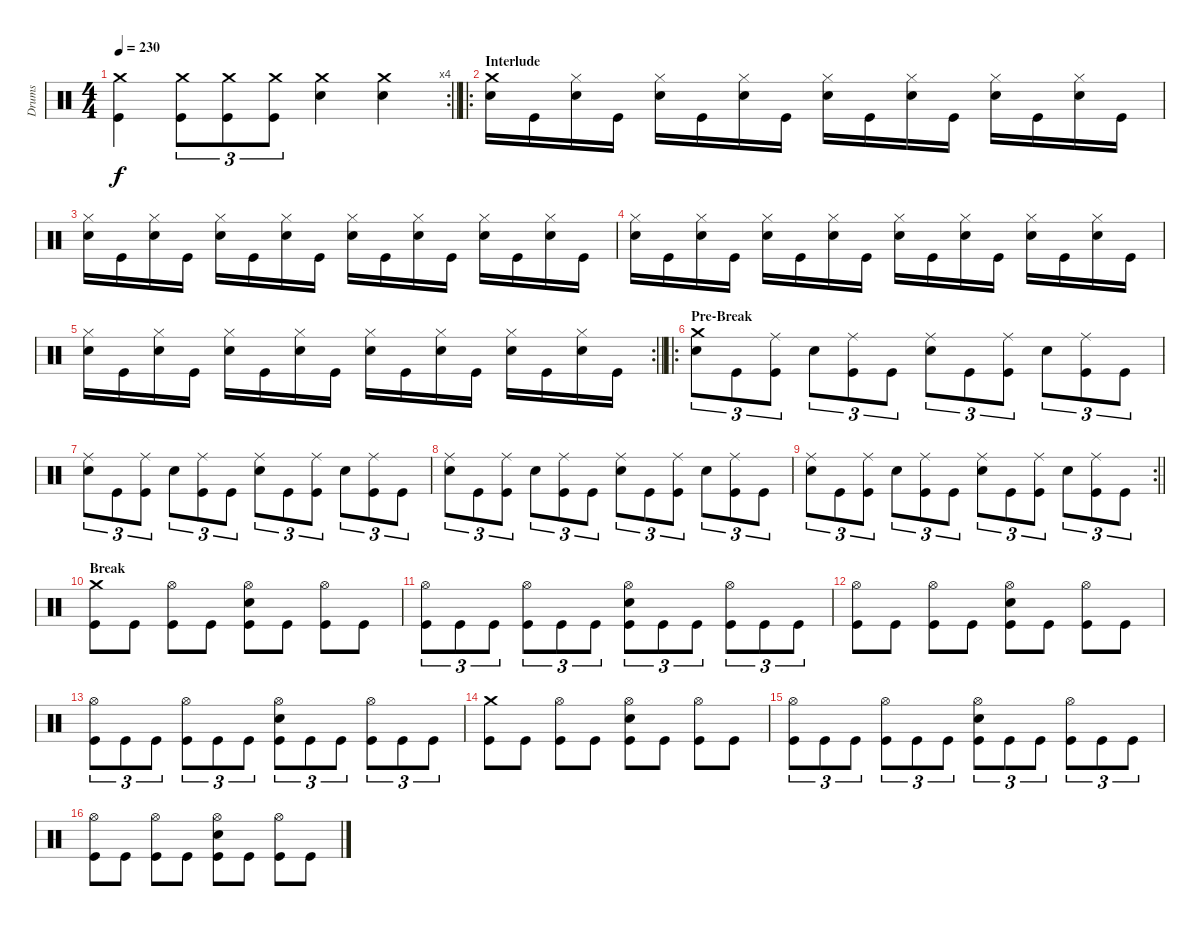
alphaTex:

\track ("Drums" "Drums") {instrument percussion}
\staff {score}
\articulation defaults
\rc 4
\ts (4 4)
\tempo 230
\clef neutral
\barLineRight lightlight
\ks c
("Crash medium (hit)" "Kick (hit)").4{dy f} ("Crash medium (hit)" "Kick (hit)").8{tu (3 2)} ("Crash medium (hit)" "Kick (hit)").8{tu (3 2)} ("Crash medium (hit)" "Kick (hit)").8{tu (3 2)} ("Crash medium (hit)" "Electric Snare (hit)").4 ("Crash medium (hit)" "Electric Snare (hit)").4 |
\ro
\section ("" "Interlude")
("Crash medium (hit)" "Electric Snare (hit)").16 "Kick (hit)".16 ("Hi-Hat (closed)" "Electric Snare (hit)").16 "Kick (hit)".16 ("Hi-Hat (closed)" "Electric Snare (hit)").16 "Kick (hit)".16 ("Hi-Hat (closed)" "Electric Snare (hit)").16 "Kick (hit)".16 ("Hi-Hat (closed)" "Electric Snare (hit)").16 "Kick (hit)".16 ("Hi-Hat (closed)" "Electric Snare (hit)").16 "Kick (hit)".16 ("Hi-Hat (closed)" "Electric Snare (hit)").16 "Kick (hit)".16 ("Hi-Hat (closed)" "Electric Snare (hit)").16 "Kick (hit)".16 |
("Hi-Hat (closed)" "Electric Snare (hit)").16 "Kick (hit)".16 ("Hi-Hat (closed)" "Electric Snare (hit)").16 "Kick (hit)".16 ("Hi-Hat (closed)" "Electric Snare (hit)").16 "Kick (hit)".16 ("Hi-Hat (closed)" "Electric Snare (hit)").16 "Kick (hit)".16 ("Hi-Hat (closed)" "Electric Snare (hit)").16 "Kick (hit)".16 ("Hi-Hat (closed)" "Electric Snare (hit)").16 "Kick (hit)".16 ("Hi-Hat (closed)" "Electric Snare (hit)").16 "Kick (hit)".16 ("Hi-Hat (closed)" "Electric Snare (hit)").16 "Kick (hit)".16 |
("Hi-Hat (closed)" "Electric Snare (hit)").16 "Kick (hit)".16 ("Hi-Hat (closed)" "Electric Snare (hit)").16 "Kick (hit)".16 ("Hi-Hat (closed)" "Electric Snare (hit)").16 "Kick (hit)".16 ("Hi-Hat (closed)" "Electric Snare (hit)").16 "Kick (hit)".16 ("Hi-Hat (closed)" "Electric Snare (hit)").16 "Kick (hit)".16 ("Hi-Hat (closed)" "Electric Snare (hit)").16 "Kick (hit)".16 ("Hi-Hat (closed)" "Electric Snare (hit)").16 "Kick (hit)".16 ("Hi-Hat (closed)" "Electric Snare (hit)").16 "Kick (hit)".16 |
\rc 2
\barLineRight lightlight
("Hi-Hat (closed)" "Electric Snare (hit)").16 "Kick (hit)".16 ("Hi-Hat (closed)" "Electric Snare (hit)").16 "Kick (hit)".16 ("Hi-Hat (closed)" "Electric Snare (hit)").16 "Kick (hit)".16 ("Hi-Hat (closed)" "Electric Snare (hit)").16 "Kick (hit)".16 ("Hi-Hat (closed)" "Electric Snare (hit)").16 "Kick (hit)".16 ("Hi-Hat (closed)" "Electric Snare (hit)").16 "Kick (hit)".16 ("Hi-Hat (closed)" "Electric Snare (hit)").16 "Kick (hit)".16 ("Hi-Hat (closed)" "Electric Snare (hit)").16 "Kick (hit)".16 |
\ro
\section ("" "Pre-Break")
("Crash medium (hit)" "Electric Snare (hit)").8{tu (3 2)} "Kick (hit)".8{tu (3 2)} ("Ride (middle)" "Kick (hit)").8{tu (3 2)} "Electric Snare (hit)".8{tu (3 2)} ("Ride (middle)" "Kick (hit)").8{tu (3 2)} "Kick (hit)".8{tu (3 2)} ("Ride (middle)" "Electric Snare (hit)").8{tu (3 2)} "Kick (hit)".8{tu (3 2)} ("Ride (middle)" "Kick (hit)").8{tu (3 2)} "Electric Snare (hit)".8{tu (3 2)} ("Ride (middle)" "Kick (hit)").8{tu (3 2)} "Kick (hit)".8{tu (3 2)} |
("Ride (middle)" "Electric Snare (hit)").8{tu (3 2)} "Kick (hit)".8{tu (3 2)} ("Ride (middle)" "Kick (hit)").8{tu (3 2)} "Electric Snare (hit)".8{tu (3 2)} ("Ride (middle)" "Kick (hit)").8{tu (3 2)} "Kick (hit)".8{tu (3 2)} ("Ride (middle)" "Electric Snare (hit)").8{tu (3 2)} "Kick (hit)".8{tu (3 2)} ("Ride (middle)" "Kick (hit)").8{tu (3 2)} "Electric Snare (hit)".8{tu (3 2)} ("Ride (middle)" "Kick (hit)").8{tu (3 2)} "Kick (hit)".8{tu (3 2)} |
("Ride (middle)" "Electric Snare (hit)").8{tu (3 2)} "Kick (hit)".8{tu (3 2)} ("Ride (middle)" "Kick (hit)").8{tu (3 2)} "Electric Snare (hit)".8{tu (3 2)} ("Ride (middle)" "Kick (hit)").8{tu (3 2)} "Kick (hit)".8{tu (3 2)} ("Ride (middle)" "Electric Snare (hit)").8{tu (3 2)} "Kick (hit)".8{tu (3 2)} ("Ride (middle)" "Kick (hit)").8{tu (3 2)} "Electric Snare (hit)".8{tu (3 2)} ("Ride (middle)" "Kick (hit)").8{tu (3 2)} "Kick (hit)".8{tu (3 2)} |
\rc 2
\barLineRight lightlight
("Ride (middle)" "Electric Snare (hit)").8{tu (3 2)} "Kick (hit)".8{tu (3 2)} ("Ride (middle)" "Kick (hit)").8{tu (3 2)} "Electric Snare (hit)".8{tu (3 2)} ("Ride (middle)" "Kick (hit)").8{tu (3 2)} "Kick (hit)".8{tu (3 2)} ("Ride (middle)" "Electric Snare (hit)").8{tu (3 2)} "Kick (hit)".8{tu (3 2)} ("Ride (middle)" "Kick (hit)").8{tu (3 2)} "Electric Snare (hit)".8{tu (3 2)} ("Ride (middle)" "Kick (hit)").8{tu (3 2)} "Kick (hit)".8{tu (3 2)} |
\section ("" "Break")
("Crash medium (hit)" "Kick (hit)").8 "Kick (hit)".8 ("Hi-Hat (open)" "Kick (hit)").8 "Kick (hit)".8 ("Hi-Hat (open)" "Electric Snare (hit)" "Kick (hit)").8 "Kick (hit)".8 ("Hi-Hat (open)" "Kick (hit)").8 "Kick (hit)".8 |
("Hi-Hat (open)" "Kick (hit)").8{tu (3 2)} "Kick (hit)".8{tu (3 2)} "Kick (hit)".8{tu (3 2)} ("Hi-Hat (open)" "Kick (hit)").8{tu (3 2)} "Kick (hit)".8{tu (3 2)} "Kick (hit)".8{tu (3 2)} ("Hi-Hat (open)" "Electric Snare (hit)" "Kick (hit)").8{tu (3 2)} "Kick (hit)".8{tu (3 2)} "Kick (hit)".8{tu (3 2)} ("Hi-Hat (open)" "Kick (hit)").8{tu (3 2)} "Kick (hit)".8{tu (3 2)} "Kick (hit)".8{tu (3 2)} |
("Hi-Hat (open)" "Kick (hit)").8 "Kick (hit)".8 ("Hi-Hat (open)" "Kick (hit)").8 "Kick (hit)".8 ("Hi-Hat (open)" "Electric Snare (hit)" "Kick (hit)").8 "Kick (hit)".8 ("Hi-Hat (open)" "Kick (hit)").8 "Kick (hit)".8 |
("Hi-Hat (open)" "Kick (hit)").8{tu (3 2)} "Kick (hit)".8{tu (3 2)} "Kick (hit)".8{tu (3 2)} ("Hi-Hat (open)" "Kick (hit)").8{tu (3 2)} "Kick (hit)".8{tu (3 2)} "Kick (hit)".8{tu (3 2)} ("Hi-Hat (open)" "Electric Snare (hit)" "Kick (hit)").8{tu (3 2)} "Kick (hit)".8{tu (3 2)} "Kick (hit)".8{tu (3 2)} ("Hi-Hat (open)" "Kick (hit)").8{tu (3 2)} "Kick (hit)".8{tu (3 2)} "Kick (hit)".8{tu (3 2)} |
("Crash medium (hit)" "Kick (hit)").8 "Kick (hit)".8 ("Hi-Hat (open)" "Kick (hit)").8 "Kick (hit)".8 ("Hi-Hat (open)" "Electric Snare (hit)" "Kick (hit)").8 "Kick (hit)".8 ("Hi-Hat (open)" "Kick (hit)").8 "Kick (hit)".8 |
("Hi-Hat (open)" "Kick (hit)").8{tu (3 2)} "Kick (hit)".8{tu (3 2)} "Kick (hit)".8{tu (3 2)} ("Hi-Hat (open)" "Kick (hit)").8{tu (3 2)} "Kick (hit)".8{tu (3 2)} "Kick (hit)".8{tu (3 2)} ("Hi-Hat (open)" "Electric Snare (hit)" "Kick (hit)").8{tu (3 2)} "Kick (hit)".8{tu (3 2)} "Kick (hit)".8{tu (3 2)} ("Hi-Hat (open)" "Kick (hit)").8{tu (3 2)} "Kick (hit)".8{tu (3 2)} "Kick (hit)".8{tu (3 2)} |
("Hi-Hat (open)" "Kick (hit)").8 "Kick (hit)".8 ("Hi-Hat (open)" "Kick (hit)").8 "Kick (hit)".8 ("Hi-Hat (open)" "Electric Snare (hit)" "Kick (hit)").8 "Kick (hit)".8 ("Hi-Hat (open)" "Kick (hit)").8 "Kick (hit)".8
